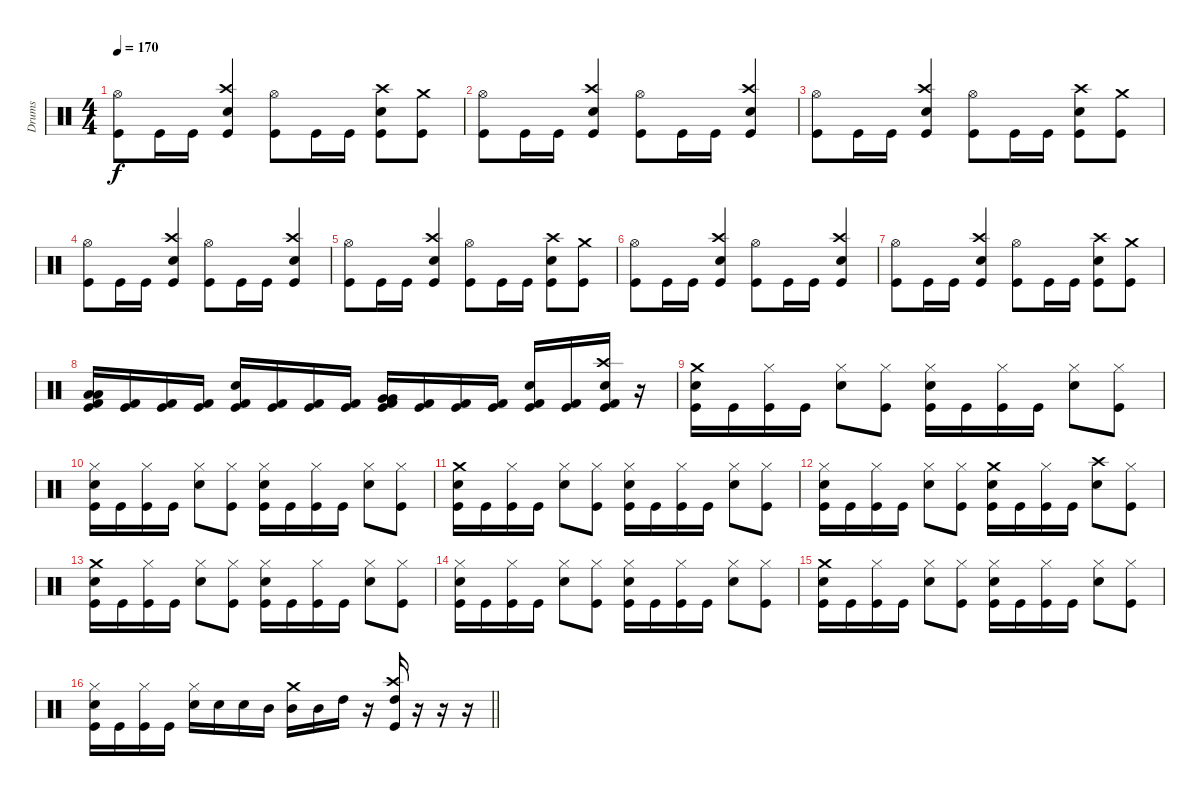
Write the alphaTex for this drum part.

\track ("Drums" "Drums") {instrument percussion}
\staff {score}
\articulation defaults
\ts (4 4)
\tempo 170
\clef neutral
\ks c
("Hi-Hat (open)" "Kick (hit)").8{dy f} "Kick (hit)".16 "Kick (hit)".16 ("Crash high (hit)" "Snare (hit) 2" "Kick (hit)").4 ("Hi-Hat (open)" "Kick (hit)").8 "Kick (hit)".16 "Kick (hit)".16 ("Crash high (hit)" "Snare (hit) 2" "Kick (hit)").8 ("Crash medium (hit)" "Kick (hit)").8 |
("Hi-Hat (open)" "Kick (hit)").8 "Kick (hit)".16 "Kick (hit)".16 ("Crash high (hit)" "Snare (hit) 2" "Kick (hit)").4 ("Hi-Hat (open)" "Kick (hit)").8 "Kick (hit)".16 "Kick (hit)".16 ("Crash high (hit)" "Snare (hit) 2" "Kick (hit)").4 |
("Hi-Hat (open)" "Kick (hit)").8 "Kick (hit)".16 "Kick (hit)".16 ("Crash high (hit)" "Snare (hit) 2" "Kick (hit)").4 ("Hi-Hat (open)" "Kick (hit)").8 "Kick (hit)".16 "Kick (hit)".16 ("Crash high (hit)" "Snare (hit) 2" "Kick (hit)").8 ("Crash medium (hit)" "Kick (hit)").8 |
("Hi-Hat (open)" "Kick (hit)").8 "Kick (hit)".16 "Kick (hit)".16 ("Crash high (hit)" "Snare (hit) 2" "Kick (hit)").4 ("Hi-Hat (open)" "Kick (hit)").8 "Kick (hit)".16 "Kick (hit)".16 ("Crash high (hit)" "Snare (hit) 2" "Kick (hit)").4 |
("Hi-Hat (open)" "Kick (hit)").8 "Kick (hit)".16 "Kick (hit)".16 ("Crash high (hit)" "Snare (hit) 2" "Kick (hit)").4 ("Hi-Hat (open)" "Kick (hit)").8 "Kick (hit)".16 "Kick (hit)".16 ("Crash high (hit)" "Snare (hit) 2" "Kick (hit)").8 ("Crash medium (hit)" "Kick (hit)").8 |
("Hi-Hat (open)" "Kick (hit)").8 "Kick (hit)".16 "Kick (hit)".16 ("Crash high (hit)" "Snare (hit) 2" "Kick (hit)").4 ("Hi-Hat (open)" "Kick (hit)").8 "Kick (hit)".16 "Kick (hit)".16 ("Crash high (hit)" "Snare (hit) 2" "Kick (hit)").4 |
("Hi-Hat (open)" "Kick (hit)").8 "Kick (hit)".16 "Kick (hit)".16 ("Crash high (hit)" "Snare (hit) 2" "Kick (hit)").4 ("Hi-Hat (open)" "Kick (hit)").8 "Kick (hit)".16 "Kick (hit)".16 ("Crash high (hit)" "Snare (hit) 2" "Kick (hit)").8 ("Crash medium (hit)" "Kick (hit)").8 |
("Low Tom (hit)" "Low Tom (hit)" "Kick (hit)" "Kick (hit) 2").16 ("Kick (hit)" "Kick (hit) 2").16 ("Kick (hit)" "Kick (hit) 2").16 ("Kick (hit)" "Kick (hit) 2").16 ("Snare (hit) 2" "Kick (hit)" "Kick (hit) 2").16 ("Kick (hit)" "Kick (hit) 2").16 ("Kick (hit)" "Kick (hit) 2").16 ("Kick (hit)" "Kick (hit) 2").16 ("Very Low Tom (hit)" "Very Low Tom (hit)" "Kick (hit)" "Kick (hit) 2").16 ("Kick (hit)" "Kick (hit) 2").16 ("Kick (hit)" "Kick (hit) 2").16 ("Kick (hit)" "Kick (hit) 2").16 ("Snare (hit) 2" "Kick (hit)" "Kick (hit) 2").16 ("Kick (hit)" "Kick (hit) 2").16 ("Crash high (hit)" "Snare (hit) 2" "Kick (hit)" "Kick (hit) 2").16 r.16 |
("Crash medium (hit)" "Snare (hit) 2" "Kick (hit)").16 "Kick (hit)".16 ("Hi-Hat (closed)" "Kick (hit)").16 "Kick (hit)".16 ("Hi-Hat (closed)" "Snare (hit) 2").8 ("Hi-Hat (closed)" "Kick (hit)").8 ("Hi-Hat (closed)" "Snare (hit) 2" "Kick (hit)").16 "Kick (hit)".16 ("Hi-Hat (closed)" "Kick (hit)").16 "Kick (hit)".16 ("Hi-Hat (closed)" "Snare (hit) 2").8 ("Hi-Hat (closed)" "Kick (hit)").8 |
("Hi-Hat (closed)" "Snare (hit) 2" "Kick (hit)").16 "Kick (hit)".16 ("Hi-Hat (closed)" "Kick (hit)").16 "Kick (hit)".16 ("Hi-Hat (closed)" "Snare (hit) 2").8 ("Hi-Hat (closed)" "Kick (hit)").8 ("Hi-Hat (closed)" "Snare (hit) 2" "Kick (hit)").16 "Kick (hit)".16 ("Hi-Hat (closed)" "Kick (hit)").16 "Kick (hit)".16 ("Hi-Hat (closed)" "Snare (hit) 2").8 ("Hi-Hat (closed)" "Kick (hit)").8 |
("Crash medium (hit)" "Snare (hit) 2" "Kick (hit)").16 "Kick (hit)".16 ("Hi-Hat (closed)" "Kick (hit)").16 "Kick (hit)".16 ("Hi-Hat (closed)" "Snare (hit) 2").8 ("Hi-Hat (closed)" "Kick (hit)").8 ("Hi-Hat (closed)" "Snare (hit) 2" "Kick (hit)").16 "Kick (hit)".16 ("Hi-Hat (closed)" "Kick (hit)").16 "Kick (hit)".16 ("Hi-Hat (closed)" "Snare (hit) 2").8 ("Hi-Hat (closed)" "Kick (hit)").8 |
("Hi-Hat (closed)" "Snare (hit) 2" "Kick (hit)").16 "Kick (hit)".16 ("Hi-Hat (closed)" "Kick (hit)").16 "Kick (hit)".16 ("Hi-Hat (closed)" "Snare (hit) 2").8 ("Hi-Hat (closed)" "Kick (hit)").8 ("Crash medium (hit)" "Snare (hit) 2" "Kick (hit)").16 "Kick (hit)".16 ("Hi-Hat (closed)" "Kick (hit)").16 "Kick (hit)".16 ("Crash high (hit)" "Snare (hit) 2").8 ("Hi-Hat (closed)" "Kick (hit)").8 |
("Crash medium (hit)" "Snare (hit) 2" "Kick (hit)").16 "Kick (hit)".16 ("Hi-Hat (closed)" "Kick (hit)").16 "Kick (hit)".16 ("Hi-Hat (closed)" "Snare (hit) 2").8 ("Hi-Hat (closed)" "Kick (hit)").8 ("Hi-Hat (closed)" "Snare (hit) 2" "Kick (hit)").16 "Kick (hit)".16 ("Hi-Hat (closed)" "Kick (hit)").16 "Kick (hit)".16 ("Hi-Hat (closed)" "Snare (hit) 2").8 ("Hi-Hat (closed)" "Kick (hit)").8 |
("Hi-Hat (closed)" "Snare (hit) 2" "Kick (hit)").16 "Kick (hit)".16 ("Hi-Hat (closed)" "Kick (hit)").16 "Kick (hit)".16 ("Hi-Hat (closed)" "Snare (hit) 2").8 ("Hi-Hat (closed)" "Kick (hit)").8 ("Hi-Hat (closed)" "Snare (hit) 2" "Kick (hit)").16 "Kick (hit)".16 ("Hi-Hat (closed)" "Kick (hit)").16 "Kick (hit)".16 ("Hi-Hat (closed)" "Snare (hit) 2").8 ("Hi-Hat (closed)" "Kick (hit)").8 |
("Crash medium (hit)" "Snare (hit) 2" "Kick (hit)").16 "Kick (hit)".16 ("Hi-Hat (closed)" "Kick (hit)").16 "Kick (hit)".16 ("Hi-Hat (closed)" "Snare (hit) 2").8 ("Hi-Hat (closed)" "Kick (hit)").8 ("Hi-Hat (closed)" "Snare (hit) 2" "Kick (hit)").16 "Kick (hit)".16 ("Hi-Hat (closed)" "Kick (hit)").16 "Kick (hit)".16 ("Hi-Hat (closed)" "Snare (hit) 2").8 ("Hi-Hat (closed)" "Kick (hit)").8 |
\barLineRight lightlight
("Hi-Hat (closed)" "Snare (hit) 2" "Kick (hit)").16 "Kick (hit)".16 ("Hi-Hat (closed)" "Kick (hit)").16 "Kick (hit)".16 ("Hi-Hat (closed)" "Snare (hit) 2").16 "Snare (hit) 2".16 "Snare (hit) 2".16 "Mid Tom (hit)".16 ("Crash medium (hit)" "Mid Tom (hit)").16 "Mid Tom (hit)".16 "High Tom (hit)".16 r.16 ("Crash high (hit)" "High Tom (hit)" "Kick (hit)").16 r.16 r.16 r.16
